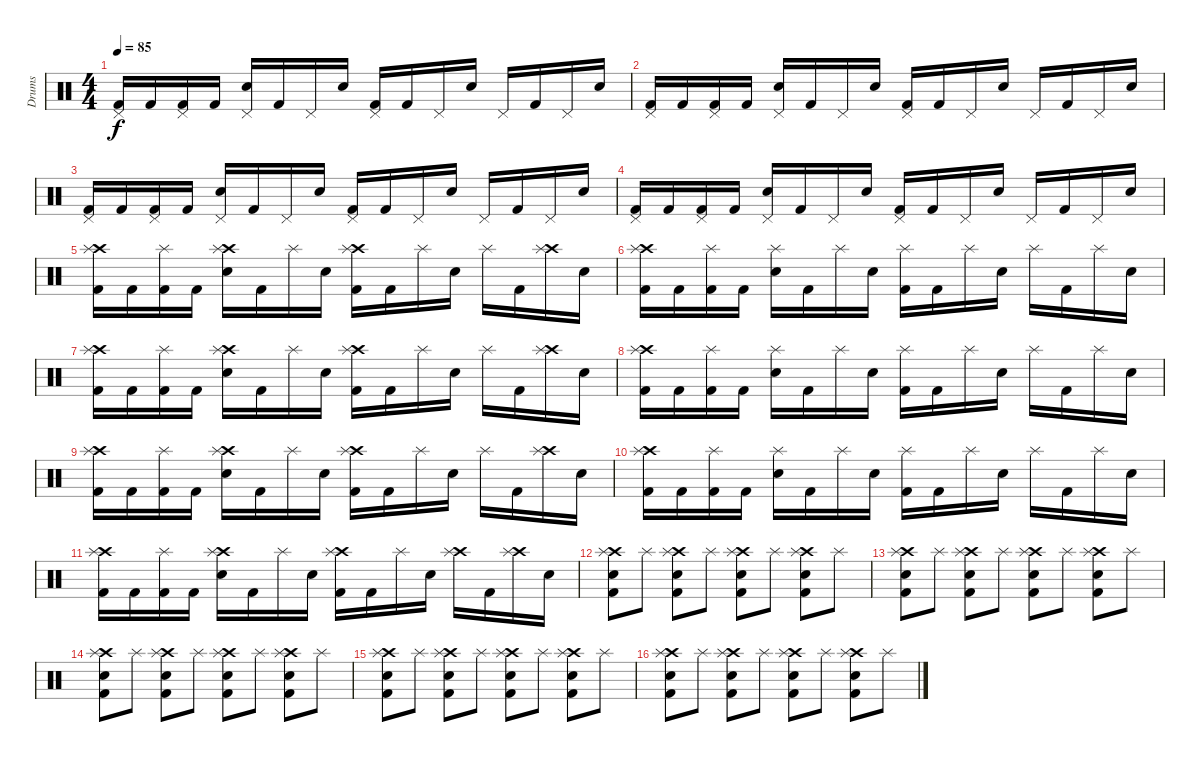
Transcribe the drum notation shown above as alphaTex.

\track ("Drums" "Drums") {instrument percussion}
\staff {score}
\articulation defaults
\ts (4 4)
\tempo 85
\clef neutral
\ks c
("Pedal Hi-Hat (hit)" "Kick (hit) 2").16{dy f} "Kick (hit) 2".16 ("Pedal Hi-Hat (hit)" "Kick (hit) 2").16 "Kick (hit) 2".16 ("Pedal Hi-Hat (hit)" "Snare (hit) 2").16 "Kick (hit) 2".16 "Pedal Hi-Hat (hit)".16 "Snare (hit) 2".16 ("Pedal Hi-Hat (hit)" "Kick (hit) 2").16 "Kick (hit) 2".16 "Pedal Hi-Hat (hit)".16 "Snare (hit) 2".16 "Pedal Hi-Hat (hit)".16 "Kick (hit) 2".16 "Pedal Hi-Hat (hit)".16 "Snare (hit) 2".16 |
("Pedal Hi-Hat (hit)" "Kick (hit) 2").16 "Kick (hit) 2".16 ("Pedal Hi-Hat (hit)" "Kick (hit) 2").16 "Kick (hit) 2".16 ("Pedal Hi-Hat (hit)" "Snare (hit) 2").16 "Kick (hit) 2".16 "Pedal Hi-Hat (hit)".16 "Snare (hit) 2".16 ("Pedal Hi-Hat (hit)" "Kick (hit) 2").16 "Kick (hit) 2".16 "Pedal Hi-Hat (hit)".16 "Snare (hit) 2".16 "Pedal Hi-Hat (hit)".16 "Kick (hit) 2".16 "Pedal Hi-Hat (hit)".16 "Snare (hit) 2".16 |
("Pedal Hi-Hat (hit)" "Kick (hit) 2").16 "Kick (hit) 2".16 ("Pedal Hi-Hat (hit)" "Kick (hit) 2").16 "Kick (hit) 2".16 ("Pedal Hi-Hat (hit)" "Snare (hit) 2").16 "Kick (hit) 2".16 "Pedal Hi-Hat (hit)".16 "Snare (hit) 2".16 ("Pedal Hi-Hat (hit)" "Kick (hit) 2").16 "Kick (hit) 2".16 "Pedal Hi-Hat (hit)".16 "Snare (hit) 2".16 "Pedal Hi-Hat (hit)".16 "Kick (hit) 2".16 "Pedal Hi-Hat (hit)".16 "Snare (hit) 2".16 |
("Pedal Hi-Hat (hit)" "Kick (hit) 2").16 "Kick (hit) 2".16 ("Pedal Hi-Hat (hit)" "Kick (hit) 2").16 "Kick (hit) 2".16 ("Pedal Hi-Hat (hit)" "Snare (hit) 2").16 "Kick (hit) 2".16 "Pedal Hi-Hat (hit)".16 "Snare (hit) 2".16 ("Pedal Hi-Hat (hit)" "Kick (hit) 2").16 "Kick (hit) 2".16 "Pedal Hi-Hat (hit)".16 "Snare (hit) 2".16 "Pedal Hi-Hat (hit)".16 "Kick (hit) 2".16 "Pedal Hi-Hat (hit)".16 "Snare (hit) 2".16 |
("Crash high (hit)" "Splash (hit)" "Kick (hit) 2").16 "Kick (hit) 2".16 ("Splash (hit)" "Kick (hit) 2").16 "Kick (hit) 2".16 ("Crash high (hit)" "Splash (hit)" "Snare (hit) 2").16 "Kick (hit) 2".16 "Splash (hit)".16 "Snare (hit) 2".16 ("Crash high (hit)" "Splash (hit)" "Kick (hit) 2").16 "Kick (hit) 2".16 "Splash (hit)".16 "Snare (hit) 2".16 "Splash (hit)".16 "Kick (hit) 2".16 ("Crash high (hit)" "Splash (hit)").16 "Snare (hit) 2".16 |
("Crash high (hit)" "Splash (hit)" "Kick (hit) 2").16 "Kick (hit) 2".16 ("Splash (hit)" "Kick (hit) 2").16 "Kick (hit) 2".16 ("Splash (hit)" "Snare (hit) 2").16 "Kick (hit) 2".16 "Splash (hit)".16 "Snare (hit) 2".16 ("Splash (hit)" "Kick (hit) 2").16 "Kick (hit) 2".16 "Splash (hit)".16 "Snare (hit) 2".16 "Splash (hit)".16 "Kick (hit) 2".16 "Splash (hit)".16 "Snare (hit) 2".16 |
("Crash high (hit)" "Splash (hit)" "Kick (hit) 2").16 "Kick (hit) 2".16 ("Splash (hit)" "Kick (hit) 2").16 "Kick (hit) 2".16 ("Crash high (hit)" "Splash (hit)" "Snare (hit) 2").16 "Kick (hit) 2".16 "Splash (hit)".16 "Snare (hit) 2".16 ("Crash high (hit)" "Splash (hit)" "Kick (hit) 2").16 "Kick (hit) 2".16 "Splash (hit)".16 "Snare (hit) 2".16 "Splash (hit)".16 "Kick (hit) 2".16 ("Crash high (hit)" "Splash (hit)").16 "Snare (hit) 2".16 |
("Crash high (hit)" "Splash (hit)" "Kick (hit) 2").16 "Kick (hit) 2".16 ("Splash (hit)" "Kick (hit) 2").16 "Kick (hit) 2".16 ("Splash (hit)" "Snare (hit) 2").16 "Kick (hit) 2".16 "Splash (hit)".16 "Snare (hit) 2".16 ("Splash (hit)" "Kick (hit) 2").16 "Kick (hit) 2".16 "Splash (hit)".16 "Snare (hit) 2".16 "Splash (hit)".16 "Kick (hit) 2".16 "Splash (hit)".16 "Snare (hit) 2".16 |
("Crash high (hit)" "Splash (hit)" "Kick (hit) 2").16 "Kick (hit) 2".16 ("Splash (hit)" "Kick (hit) 2").16 "Kick (hit) 2".16 ("Crash high (hit)" "Splash (hit)" "Snare (hit) 2").16 "Kick (hit) 2".16 "Splash (hit)".16 "Snare (hit) 2".16 ("Crash high (hit)" "Splash (hit)" "Kick (hit) 2").16 "Kick (hit) 2".16 "Splash (hit)".16 "Snare (hit) 2".16 "Splash (hit)".16 "Kick (hit) 2".16 ("Crash high (hit)" "Splash (hit)").16 "Snare (hit) 2".16 |
("Crash high (hit)" "Splash (hit)" "Kick (hit) 2").16 "Kick (hit) 2".16 ("Splash (hit)" "Kick (hit) 2").16 "Kick (hit) 2".16 ("Splash (hit)" "Snare (hit) 2").16 "Kick (hit) 2".16 "Splash (hit)".16 "Snare (hit) 2".16 ("Splash (hit)" "Kick (hit) 2").16 "Kick (hit) 2".16 "Splash (hit)".16 "Snare (hit) 2".16 "Splash (hit)".16 "Kick (hit) 2".16 "Splash (hit)".16 "Snare (hit) 2".16 |
("Crash high (hit)" "Splash (hit)" "Kick (hit) 2").16 "Kick (hit) 2".16 ("Splash (hit)" "Kick (hit) 2").16 "Kick (hit) 2".16 ("Crash high (hit)" "Splash (hit)" "Snare (hit) 2").16 "Kick (hit) 2".16 "Splash (hit)".16 "Snare (hit) 2".16 ("Crash high (hit)" "Splash (hit)" "Kick (hit) 2").16 "Kick (hit) 2".16 "Splash (hit)".16 "Snare (hit) 2".16 ("Crash high (hit)" "Splash (hit)").16 "Kick (hit) 2".16 ("Crash high (hit)" "Splash (hit)").16 "Snare (hit) 2".16 |
("Crash high (hit)" "Splash (hit)" "Snare (hit) 2" "Kick (hit) 2").8 "Splash (hit)".8 ("Crash high (hit)" "Splash (hit)" "Snare (hit) 2" "Kick (hit) 2").8 "Splash (hit)".8 ("Crash high (hit)" "Splash (hit)" "Snare (hit) 2" "Kick (hit) 2").8 "Splash (hit)".8 ("Crash high (hit)" "Splash (hit)" "Snare (hit) 2" "Kick (hit) 2").8 "Splash (hit)".8 |
("Crash high (hit)" "Splash (hit)" "Snare (hit) 2" "Kick (hit) 2").8 "Splash (hit)".8 ("Crash high (hit)" "Splash (hit)" "Snare (hit) 2" "Kick (hit) 2").8 "Splash (hit)".8 ("Crash high (hit)" "Splash (hit)" "Snare (hit) 2" "Kick (hit) 2").8 "Splash (hit)".8 ("Crash high (hit)" "Splash (hit)" "Snare (hit) 2" "Kick (hit) 2").8 "Splash (hit)".8 |
("Crash high (hit)" "Splash (hit)" "Snare (hit) 2" "Kick (hit) 2").8 "Splash (hit)".8 ("Crash high (hit)" "Splash (hit)" "Snare (hit) 2" "Kick (hit) 2").8 "Splash (hit)".8 ("Crash high (hit)" "Splash (hit)" "Snare (hit) 2" "Kick (hit) 2").8 "Splash (hit)".8 ("Crash high (hit)" "Splash (hit)" "Snare (hit) 2" "Kick (hit) 2").8 "Splash (hit)".8 |
("Crash high (hit)" "Splash (hit)" "Snare (hit) 2" "Kick (hit) 2").8 "Splash (hit)".8 ("Crash high (hit)" "Splash (hit)" "Snare (hit) 2" "Kick (hit) 2").8 "Splash (hit)".8 ("Crash high (hit)" "Splash (hit)" "Snare (hit) 2" "Kick (hit) 2").8 "Splash (hit)".8 ("Crash high (hit)" "Splash (hit)" "Snare (hit) 2" "Kick (hit) 2").8 "Splash (hit)".8 |
("Crash high (hit)" "Splash (hit)" "Snare (hit) 2" "Kick (hit) 2").8 "Splash (hit)".8 ("Crash high (hit)" "Splash (hit)" "Snare (hit) 2" "Kick (hit) 2").8 "Splash (hit)".8 ("Crash high (hit)" "Splash (hit)" "Snare (hit) 2" "Kick (hit) 2").8 "Splash (hit)".8 ("Crash high (hit)" "Splash (hit)" "Snare (hit) 2" "Kick (hit) 2").8 "Splash (hit)".8
